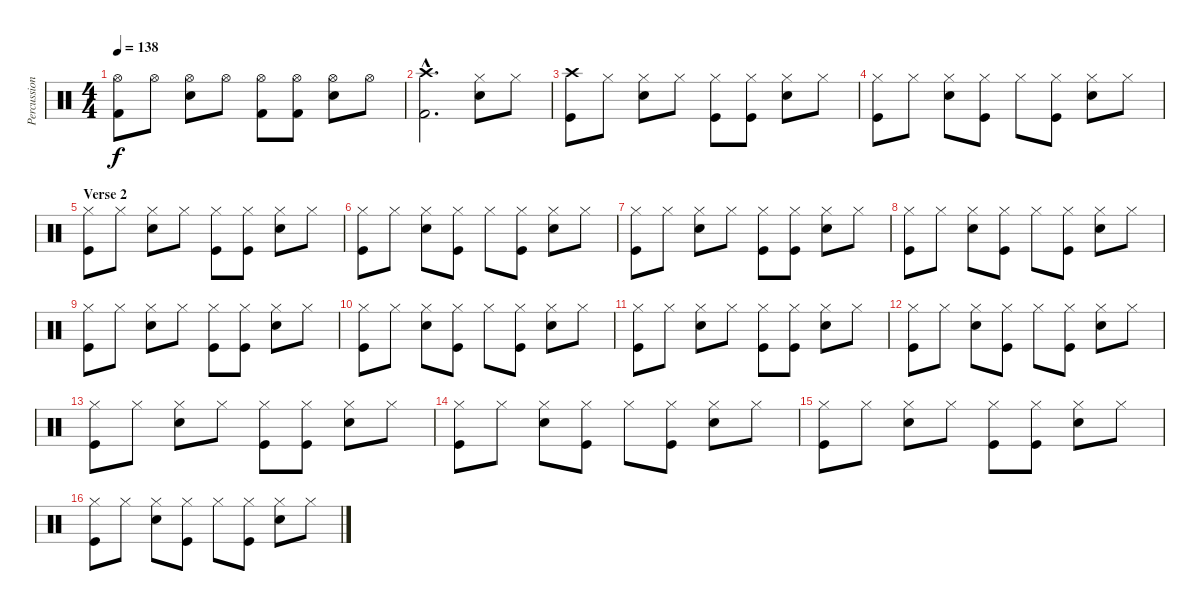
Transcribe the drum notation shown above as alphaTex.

\track ("Percussion" "Percussion") {instrument percussion}
\staff {score}
\articulation defaults
\ts (4 4)
\tempo 138
\clef neutral
\ks c
("Hi-Hat (open)" "Kick (hit) 2").8{dy f} "Hi-Hat (open)".8 ("Hi-Hat (open)" "Electric Snare (hit)").8 "Hi-Hat (open)".8 ("Hi-Hat (open)" "Kick (hit) 2").8 ("Hi-Hat (open)" "Kick (hit) 2").8 ("Hi-Hat (open)" "Electric Snare (hit)").8 "Hi-Hat (open)".8 |
("Crash high (hit)"{hac} "Kick (hit) 2"{hac}).2{d} ("Hi-Hat (closed)" "Electric Snare (hit)").8 "Hi-Hat (closed)".8 |
("Crash high (hit)" "Kick (hit)").8 "Hi-Hat (closed)".8 ("Hi-Hat (closed)" "Electric Snare (hit)").8 "Hi-Hat (closed)".8 ("Hi-Hat (closed)" "Kick (hit)").8 ("Hi-Hat (closed)" "Kick (hit)").8 ("Hi-Hat (closed)" "Electric Snare (hit)").8 "Hi-Hat (closed)".8 |
("Hi-Hat (closed)" "Kick (hit)").8 "Hi-Hat (closed)".8 ("Hi-Hat (closed)" "Electric Snare (hit)").8 ("Hi-Hat (closed)" "Kick (hit)").8 "Hi-Hat (closed)".8 ("Hi-Hat (closed)" "Kick (hit)").8 ("Hi-Hat (closed)" "Electric Snare (hit)").8 "Hi-Hat (closed)".8 |
\section ("" "Verse 2")
("Hi-Hat (closed)" "Kick (hit)").8 "Hi-Hat (closed)".8 ("Hi-Hat (closed)" "Electric Snare (hit)").8 "Hi-Hat (closed)".8 ("Hi-Hat (closed)" "Kick (hit)").8 ("Hi-Hat (closed)" "Kick (hit)").8 ("Hi-Hat (closed)" "Electric Snare (hit)").8 "Hi-Hat (closed)".8 |
("Hi-Hat (closed)" "Kick (hit)").8 "Hi-Hat (closed)".8 ("Hi-Hat (closed)" "Electric Snare (hit)").8 ("Hi-Hat (closed)" "Kick (hit)").8 "Hi-Hat (closed)".8 ("Hi-Hat (closed)" "Kick (hit)").8 ("Hi-Hat (closed)" "Electric Snare (hit)").8 "Hi-Hat (closed)".8 |
("Hi-Hat (closed)" "Kick (hit)").8 "Hi-Hat (closed)".8 ("Hi-Hat (closed)" "Electric Snare (hit)").8 "Hi-Hat (closed)".8 ("Hi-Hat (closed)" "Kick (hit)").8 ("Hi-Hat (closed)" "Kick (hit)").8 ("Hi-Hat (closed)" "Electric Snare (hit)").8 "Hi-Hat (closed)".8 |
("Hi-Hat (closed)" "Kick (hit)").8 "Hi-Hat (closed)".8 ("Hi-Hat (closed)" "Electric Snare (hit)").8 ("Hi-Hat (closed)" "Kick (hit)").8 "Hi-Hat (closed)".8 ("Hi-Hat (closed)" "Kick (hit)").8 ("Hi-Hat (closed)" "Electric Snare (hit)").8 "Hi-Hat (closed)".8 |
("Hi-Hat (closed)" "Kick (hit)").8 "Hi-Hat (closed)".8 ("Hi-Hat (closed)" "Electric Snare (hit)").8 "Hi-Hat (closed)".8 ("Hi-Hat (closed)" "Kick (hit)").8 ("Hi-Hat (closed)" "Kick (hit)").8 ("Hi-Hat (closed)" "Electric Snare (hit)").8 "Hi-Hat (closed)".8 |
("Hi-Hat (closed)" "Kick (hit)").8 "Hi-Hat (closed)".8 ("Hi-Hat (closed)" "Electric Snare (hit)").8 ("Hi-Hat (closed)" "Kick (hit)").8 "Hi-Hat (closed)".8 ("Hi-Hat (closed)" "Kick (hit)").8 ("Hi-Hat (closed)" "Electric Snare (hit)").8 "Hi-Hat (closed)".8 |
("Hi-Hat (closed)" "Kick (hit)").8 "Hi-Hat (closed)".8 ("Hi-Hat (closed)" "Electric Snare (hit)").8 "Hi-Hat (closed)".8 ("Hi-Hat (closed)" "Kick (hit)").8 ("Hi-Hat (closed)" "Kick (hit)").8 ("Hi-Hat (closed)" "Electric Snare (hit)").8 "Hi-Hat (closed)".8 |
("Hi-Hat (closed)" "Kick (hit)").8 "Hi-Hat (closed)".8 ("Hi-Hat (closed)" "Electric Snare (hit)").8 ("Hi-Hat (closed)" "Kick (hit)").8 "Hi-Hat (closed)".8 ("Hi-Hat (closed)" "Kick (hit)").8 ("Hi-Hat (closed)" "Electric Snare (hit)").8 "Hi-Hat (closed)".8 |
("Hi-Hat (closed)" "Kick (hit)").8 "Hi-Hat (closed)".8 ("Hi-Hat (closed)" "Electric Snare (hit)").8 "Hi-Hat (closed)".8 ("Hi-Hat (closed)" "Kick (hit)").8 ("Hi-Hat (closed)" "Kick (hit)").8 ("Hi-Hat (closed)" "Electric Snare (hit)").8 "Hi-Hat (closed)".8 |
("Hi-Hat (closed)" "Kick (hit)").8 "Hi-Hat (closed)".8 ("Hi-Hat (closed)" "Electric Snare (hit)").8 ("Hi-Hat (closed)" "Kick (hit)").8 "Hi-Hat (closed)".8 ("Hi-Hat (closed)" "Kick (hit)").8 ("Hi-Hat (closed)" "Electric Snare (hit)").8 "Hi-Hat (closed)".8 |
("Hi-Hat (closed)" "Kick (hit)").8 "Hi-Hat (closed)".8 ("Hi-Hat (closed)" "Electric Snare (hit)").8 "Hi-Hat (closed)".8 ("Hi-Hat (closed)" "Kick (hit)").8 ("Hi-Hat (closed)" "Kick (hit)").8 ("Hi-Hat (closed)" "Electric Snare (hit)").8 "Hi-Hat (closed)".8 |
("Hi-Hat (closed)" "Kick (hit)").8 "Hi-Hat (closed)".8 ("Hi-Hat (closed)" "Electric Snare (hit)").8 ("Hi-Hat (closed)" "Kick (hit)").8 "Hi-Hat (closed)".8 ("Hi-Hat (closed)" "Kick (hit)").8 ("Hi-Hat (closed)" "Electric Snare (hit)").8 "Hi-Hat (closed)".8
